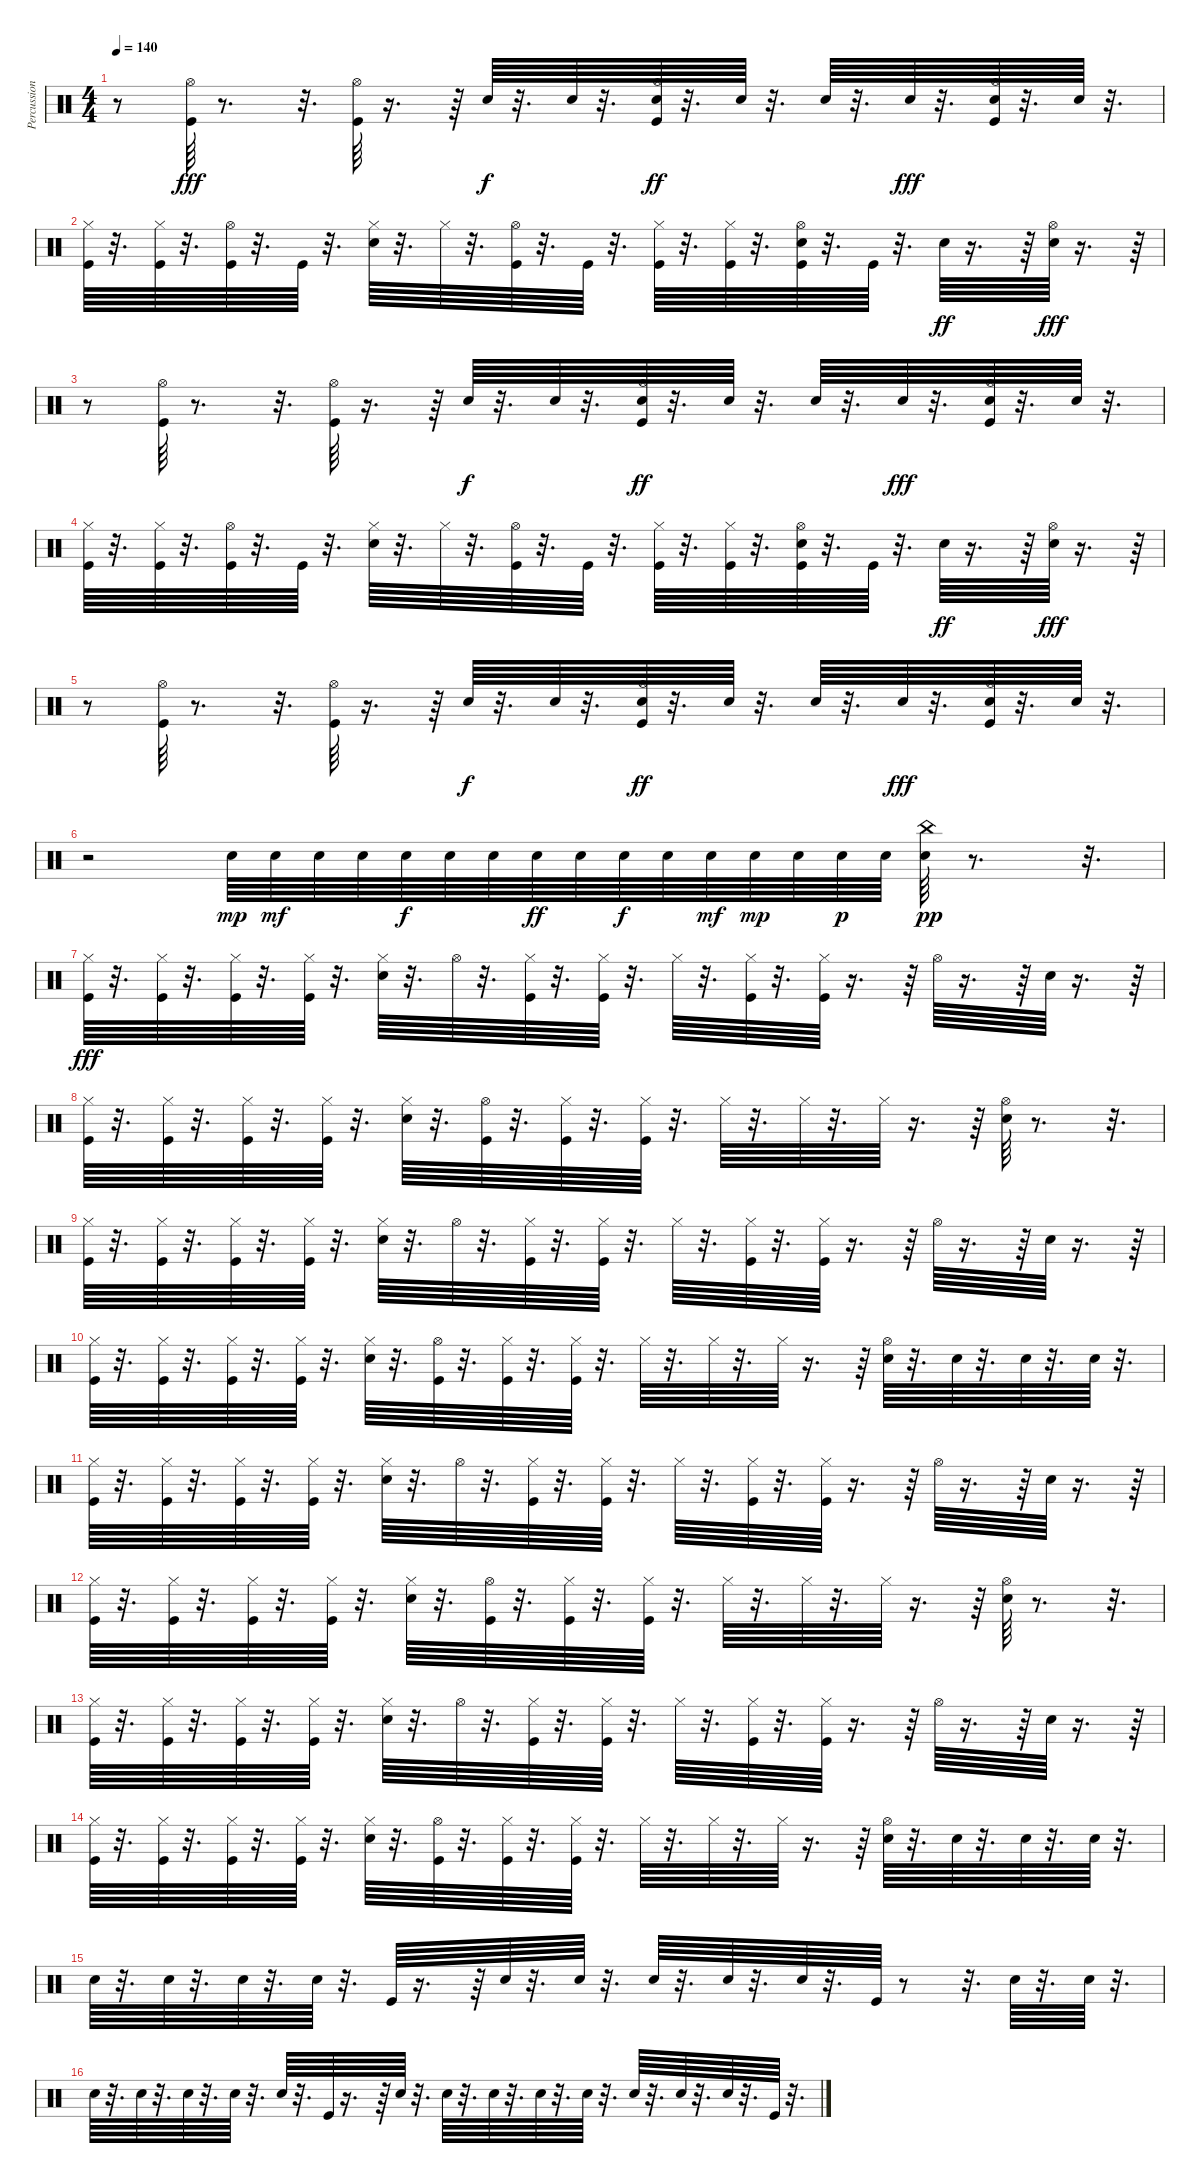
\track ("Percussion [Room Kit]" "Percussion") {instrument percussion}
\staff {score}
\articulation defaults
\ts (4 4)
\tempo 140
\clef neutral
\ks c
r.8{dy fff} ("Kick (hit)" "Hi-Hat (open)").64 r.8{d} r.32{d} ("Kick (hit)" "Hi-Hat (open)").64 r.16{d} r.64 "Electric Snare (hit)".64{dy f} r.32{d} "Electric Snare (hit)".64 r.32{d} ("Kick (hit)" "Hi-Hat (open)" "Electric Snare (hit)").64{dy ff} r.32{d} "Electric Snare (hit)".64 r.32{d} "Electric Snare (hit)".64 r.32{d} "Electric Snare (hit)".64{dy fff} r.32{d} ("Kick (hit)" "Hi-Hat (open)" "Electric Snare (hit)").64 r.32{d} "Electric Snare (hit)".64 r.32{d} |
("Hi-Hat (closed)" "Kick (hit)").64 r.32{d} ("Hi-Hat (closed)" "Kick (hit)").64 r.32{d} ("Hi-Hat (open)" "Kick (hit)").64 r.32{d} "Kick (hit)".64 r.32{d} ("Hi-Hat (closed)" "Electric Snare (hit)").64 r.32{d} "Hi-Hat (closed)".64 r.32{d} ("Hi-Hat (open)" "Kick (hit)").64 r.32{d} "Kick (hit)".64 r.32{d} ("Hi-Hat (closed)" "Kick (hit)").64 r.32{d} ("Hi-Hat (closed)" "Kick (hit)").64 r.32{d} ("Hi-Hat (open)" "Kick (hit)" "Electric Snare (hit)").64 r.32{d} "Kick (hit)".64 r.32{d} "Electric Snare (hit)".64{dy ff} r.16{d} r.64 ("Hi-Hat (open)" "Electric Snare (hit)").64{dy fff} r.16{d} r.64 |
r.8 ("Kick (hit)" "Hi-Hat (open)").64 r.8{d} r.32{d} ("Kick (hit)" "Hi-Hat (open)").64 r.16{d} r.64 "Electric Snare (hit)".64{dy f} r.32{d} "Electric Snare (hit)".64 r.32{d} ("Kick (hit)" "Hi-Hat (open)" "Electric Snare (hit)").64{dy ff} r.32{d} "Electric Snare (hit)".64 r.32{d} "Electric Snare (hit)".64 r.32{d} "Electric Snare (hit)".64{dy fff} r.32{d} ("Kick (hit)" "Hi-Hat (open)" "Electric Snare (hit)").64 r.32{d} "Electric Snare (hit)".64 r.32{d} |
("Hi-Hat (closed)" "Kick (hit)").64 r.32{d} ("Hi-Hat (closed)" "Kick (hit)").64 r.32{d} ("Hi-Hat (open)" "Kick (hit)").64 r.32{d} "Kick (hit)".64 r.32{d} ("Hi-Hat (closed)" "Electric Snare (hit)").64 r.32{d} "Hi-Hat (closed)".64 r.32{d} ("Hi-Hat (open)" "Kick (hit)").64 r.32{d} "Kick (hit)".64 r.32{d} ("Hi-Hat (closed)" "Kick (hit)").64 r.32{d} ("Hi-Hat (closed)" "Kick (hit)").64 r.32{d} ("Hi-Hat (open)" "Kick (hit)" "Electric Snare (hit)").64 r.32{d} "Kick (hit)".64 r.32{d} "Electric Snare (hit)".64{dy ff} r.16{d} r.64 ("Hi-Hat (open)" "Electric Snare (hit)").64{dy fff} r.16{d} r.64 |
r.8 ("Kick (hit)" "Hi-Hat (open)").64 r.8{d} r.32{d} ("Kick (hit)" "Hi-Hat (open)").64 r.16{d} r.64 "Electric Snare (hit)".64{dy f} r.32{d} "Electric Snare (hit)".64 r.32{d} ("Kick (hit)" "Hi-Hat (open)" "Electric Snare (hit)").64{dy ff} r.32{d} "Electric Snare (hit)".64 r.32{d} "Electric Snare (hit)".64 r.32{d} "Electric Snare (hit)".64{dy fff} r.32{d} ("Kick (hit)" "Hi-Hat (open)" "Electric Snare (hit)").64 r.32{d} "Electric Snare (hit)".64 r.32{d} |
r.2 "Electric Snare (hit)".64{dy mp} "Electric Snare (hit)".64{dy mf} "Electric Snare (hit)".64 "Electric Snare (hit)".64 "Electric Snare (hit)".64{dy f} "Electric Snare (hit)".64 "Electric Snare (hit)".64 "Electric Snare (hit)".64{dy ff} "Electric Snare (hit)".64 "Electric Snare (hit)".64{dy f} "Electric Snare (hit)".64 "Electric Snare (hit)".64{dy mf} "Electric Snare (hit)".64{dy mp} "Electric Snare (hit)".64 "Electric Snare (hit)".64{dy p} "Electric Snare (hit)".64 ("China (hit)" "Electric Snare (hit)").64{dy pp} r.8{d} r.32{d} |
("Kick (hit)" "Hi-Hat (closed)").64{dy fff} r.32{d} ("Kick (hit)" "Hi-Hat (closed)").64 r.32{d} ("Kick (hit)" "Hi-Hat (closed)").64 r.32{d} ("Kick (hit)" "Hi-Hat (closed)").64 r.32{d} ("Electric Snare (hit)" "Hi-Hat (closed)").64 r.32{d} "Hi-Hat (open)".64 r.32{d} ("Kick (hit)" "Hi-Hat (closed)").64 r.32{d} ("Kick (hit)" "Hi-Hat (closed)").64 r.32{d} "Hi-Hat (closed)".64 r.32{d} ("Kick (hit)" "Hi-Hat (closed)").64 r.32{d} ("Kick (hit)" "Hi-Hat (closed)").64 r.16{d} r.64 "Hi-Hat (open)".64 r.16{d} r.64 "Electric Snare (hit)".64 r.16{d} r.64 |
("Kick (hit)" "Hi-Hat (closed)").64 r.32{d} ("Kick (hit)" "Hi-Hat (closed)").64 r.32{d} ("Kick (hit)" "Hi-Hat (closed)").64 r.32{d} ("Kick (hit)" "Hi-Hat (closed)").64 r.32{d} ("Electric Snare (hit)" "Hi-Hat (closed)").64 r.32{d} ("Kick (hit)" "Hi-Hat (open)").64 r.32{d} ("Kick (hit)" "Hi-Hat (closed)").64 r.32{d} ("Kick (hit)" "Hi-Hat (closed)").64 r.32{d} "Hi-Hat (closed)".64 r.32{d} "Hi-Hat (closed)".64 r.32{d} "Hi-Hat (closed)".64 r.16{d} r.64 ("Electric Snare (hit)" "Hi-Hat (open)").64 r.8{d} r.32{d} |
("Kick (hit)" "Hi-Hat (closed)").64 r.32{d} ("Kick (hit)" "Hi-Hat (closed)").64 r.32{d} ("Kick (hit)" "Hi-Hat (closed)").64 r.32{d} ("Kick (hit)" "Hi-Hat (closed)").64 r.32{d} ("Electric Snare (hit)" "Hi-Hat (closed)").64 r.32{d} "Hi-Hat (open)".64 r.32{d} ("Kick (hit)" "Hi-Hat (closed)").64 r.32{d} ("Kick (hit)" "Hi-Hat (closed)").64 r.32{d} "Hi-Hat (closed)".64 r.32{d} ("Kick (hit)" "Hi-Hat (closed)").64 r.32{d} ("Kick (hit)" "Hi-Hat (closed)").64 r.16{d} r.64 "Hi-Hat (open)".64 r.16{d} r.64 "Electric Snare (hit)".64 r.16{d} r.64 |
("Kick (hit)" "Hi-Hat (closed)").64 r.32{d} ("Kick (hit)" "Hi-Hat (closed)").64 r.32{d} ("Kick (hit)" "Hi-Hat (closed)").64 r.32{d} ("Kick (hit)" "Hi-Hat (closed)").64 r.32{d} ("Electric Snare (hit)" "Hi-Hat (closed)").64 r.32{d} ("Kick (hit)" "Hi-Hat (open)").64 r.32{d} ("Kick (hit)" "Hi-Hat (closed)").64 r.32{d} ("Kick (hit)" "Hi-Hat (closed)").64 r.32{d} "Hi-Hat (closed)".64 r.32{d} "Hi-Hat (closed)".64 r.32{d} "Hi-Hat (closed)".64 r.16{d} r.64 ("Electric Snare (hit)" "Hi-Hat (open)").64 r.32{d} "Electric Snare (hit)".64 r.32{d} "Electric Snare (hit)".64 r.32{d} "Electric Snare (hit)".64 r.32{d} |
("Kick (hit)" "Hi-Hat (closed)").64 r.32{d} ("Kick (hit)" "Hi-Hat (closed)").64 r.32{d} ("Kick (hit)" "Hi-Hat (closed)").64 r.32{d} ("Kick (hit)" "Hi-Hat (closed)").64 r.32{d} ("Electric Snare (hit)" "Hi-Hat (closed)").64 r.32{d} "Hi-Hat (open)".64 r.32{d} ("Kick (hit)" "Hi-Hat (closed)").64 r.32{d} ("Kick (hit)" "Hi-Hat (closed)").64 r.32{d} "Hi-Hat (closed)".64 r.32{d} ("Kick (hit)" "Hi-Hat (closed)").64 r.32{d} ("Kick (hit)" "Hi-Hat (closed)").64 r.16{d} r.64 "Hi-Hat (open)".64 r.16{d} r.64 "Electric Snare (hit)".64 r.16{d} r.64 |
("Kick (hit)" "Hi-Hat (closed)").64 r.32{d} ("Kick (hit)" "Hi-Hat (closed)").64 r.32{d} ("Kick (hit)" "Hi-Hat (closed)").64 r.32{d} ("Kick (hit)" "Hi-Hat (closed)").64 r.32{d} ("Electric Snare (hit)" "Hi-Hat (closed)").64 r.32{d} ("Kick (hit)" "Hi-Hat (open)").64 r.32{d} ("Kick (hit)" "Hi-Hat (closed)").64 r.32{d} ("Kick (hit)" "Hi-Hat (closed)").64 r.32{d} "Hi-Hat (closed)".64 r.32{d} "Hi-Hat (closed)".64 r.32{d} "Hi-Hat (closed)".64 r.16{d} r.64 ("Electric Snare (hit)" "Hi-Hat (open)").64 r.8{d} r.32{d} |
("Kick (hit)" "Hi-Hat (closed)").64 r.32{d} ("Kick (hit)" "Hi-Hat (closed)").64 r.32{d} ("Kick (hit)" "Hi-Hat (closed)").64 r.32{d} ("Kick (hit)" "Hi-Hat (closed)").64 r.32{d} ("Electric Snare (hit)" "Hi-Hat (closed)").64 r.32{d} "Hi-Hat (open)".64 r.32{d} ("Kick (hit)" "Hi-Hat (closed)").64 r.32{d} ("Kick (hit)" "Hi-Hat (closed)").64 r.32{d} "Hi-Hat (closed)".64 r.32{d} ("Kick (hit)" "Hi-Hat (closed)").64 r.32{d} ("Kick (hit)" "Hi-Hat (closed)").64 r.16{d} r.64 "Hi-Hat (open)".64 r.16{d} r.64 "Electric Snare (hit)".64 r.16{d} r.64 |
("Kick (hit)" "Hi-Hat (closed)").64 r.32{d} ("Kick (hit)" "Hi-Hat (closed)").64 r.32{d} ("Kick (hit)" "Hi-Hat (closed)").64 r.32{d} ("Kick (hit)" "Hi-Hat (closed)").64 r.32{d} ("Electric Snare (hit)" "Hi-Hat (closed)").64 r.32{d} ("Kick (hit)" "Hi-Hat (open)").64 r.32{d} ("Kick (hit)" "Hi-Hat (closed)").64 r.32{d} ("Kick (hit)" "Hi-Hat (closed)").64 r.32{d} "Hi-Hat (closed)".64 r.32{d} "Hi-Hat (closed)".64 r.32{d} "Hi-Hat (closed)".64 r.16{d} r.64 ("Electric Snare (hit)" "Hi-Hat (open)").64 r.32{d} "Electric Snare (hit)".64 r.32{d} "Electric Snare (hit)".64 r.32{d} "Electric Snare (hit)".64 r.32{d} |
"Electric Snare (hit)".64 r.32{d} "Electric Snare (hit)".64 r.32{d} "Electric Snare (hit)".64 r.32{d} "Electric Snare (hit)".64 r.32{d} "Kick (hit)".64 r.16{d} r.64 "Electric Snare (hit)".64 r.32{d} "Electric Snare (hit)".64 r.32{d} "Electric Snare (hit)".64 r.32{d} "Electric Snare (hit)".64 r.32{d} "Electric Snare (hit)".64 r.32{d} "Kick (hit)".64 r.8 r.32{d} "Electric Snare (hit)".64 r.32{d} "Electric Snare (hit)".64 r.32{d} |
"Electric Snare (hit)".64 r.32{d} "Electric Snare (hit)".64 r.32{d} "Electric Snare (hit)".64 r.32{d} "Electric Snare (hit)".64 r.32{d} "Electric Snare (hit)".64 r.32{d} "Kick (hit)".64 r.16{d} r.64 "Electric Snare (hit)".64 r.32{d} "Electric Snare (hit)".64 r.32{d} "Electric Snare (hit)".64 r.32{d} "Electric Snare (hit)".64 r.32{d} "Electric Snare (hit)".64 r.32{d} "Electric Snare (hit)".64 r.32{d} "Electric Snare (hit)".64 r.32{d} "Electric Snare (hit)".64 r.32{d} "Kick (hit)".64 r.32{d}
